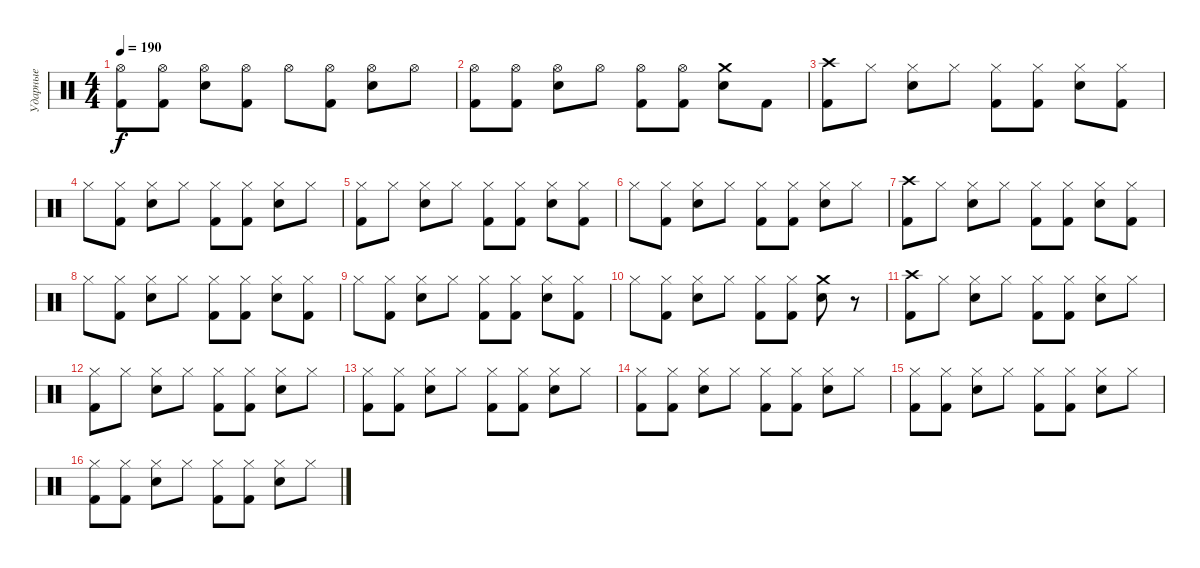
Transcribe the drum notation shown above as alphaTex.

\track ("Ударные" "Ударные") {instrument percussion}
\staff {score}
\articulation defaults
\ts (4 4)
\tempo 190
\clef neutral
\ks c
("Hi-Hat (open)" "Kick (hit) 2").8{dy f} ("Hi-Hat (open)" "Kick (hit) 2").8 ("Hi-Hat (open)" "Electric Snare (hit)").8 ("Hi-Hat (open)" "Kick (hit) 2").8 "Hi-Hat (open)".8 ("Hi-Hat (open)" "Kick (hit) 2").8 ("Hi-Hat (open)" "Electric Snare (hit)").8 "Hi-Hat (open)".8 |
("Hi-Hat (open)" "Kick (hit) 2").8 ("Hi-Hat (open)" "Kick (hit) 2").8 ("Hi-Hat (open)" "Electric Snare (hit)").8 "Hi-Hat (open)".8 ("Hi-Hat (open)" "Kick (hit) 2").8 ("Hi-Hat (open)" "Kick (hit) 2").8 ("Crash medium (hit)" "Electric Snare (hit)").8 "Kick (hit) 2".8 |
("Crash high (hit)" "Kick (hit) 2").8 "Hi-Hat (closed)".8 ("Hi-Hat (closed)" "Electric Snare (hit)").8 "Hi-Hat (closed)".8 ("Hi-Hat (closed)" "Kick (hit) 2").8 ("Hi-Hat (closed)" "Kick (hit) 2").8 ("Hi-Hat (closed)" "Electric Snare (hit)").8 ("Hi-Hat (closed)" "Kick (hit) 2").8 |
"Hi-Hat (closed)".8 ("Hi-Hat (closed)" "Kick (hit) 2").8 ("Hi-Hat (closed)" "Electric Snare (hit)").8 "Hi-Hat (closed)".8 ("Hi-Hat (closed)" "Kick (hit) 2").8 ("Hi-Hat (closed)" "Kick (hit) 2").8 ("Hi-Hat (closed)" "Electric Snare (hit)").8 "Hi-Hat (closed)".8 |
("Hi-Hat (closed)" "Kick (hit) 2").8 "Hi-Hat (closed)".8 ("Hi-Hat (closed)" "Electric Snare (hit)").8 "Hi-Hat (closed)".8 ("Hi-Hat (closed)" "Kick (hit) 2").8 ("Hi-Hat (closed)" "Kick (hit) 2").8 ("Hi-Hat (closed)" "Electric Snare (hit)").8 ("Hi-Hat (closed)" "Kick (hit) 2").8 |
"Hi-Hat (closed)".8 ("Hi-Hat (closed)" "Kick (hit) 2").8 ("Hi-Hat (closed)" "Electric Snare (hit)").8 "Hi-Hat (closed)".8 ("Hi-Hat (closed)" "Kick (hit) 2").8 ("Hi-Hat (closed)" "Kick (hit) 2").8 ("Hi-Hat (closed)" "Electric Snare (hit)").8 "Hi-Hat (closed)".8 |
("Crash high (hit)" "Kick (hit) 2").8 "Hi-Hat (closed)".8 ("Hi-Hat (closed)" "Electric Snare (hit)").8 "Hi-Hat (closed)".8 ("Hi-Hat (closed)" "Kick (hit) 2").8 ("Hi-Hat (closed)" "Kick (hit) 2").8 ("Hi-Hat (closed)" "Electric Snare (hit)").8 ("Hi-Hat (closed)" "Kick (hit) 2").8 |
"Hi-Hat (closed)".8 ("Hi-Hat (closed)" "Kick (hit) 2").8 ("Hi-Hat (closed)" "Electric Snare (hit)").8 "Hi-Hat (closed)".8 ("Hi-Hat (closed)" "Kick (hit) 2").8 ("Hi-Hat (closed)" "Kick (hit) 2").8 ("Hi-Hat (closed)" "Electric Snare (hit)").8 ("Hi-Hat (closed)" "Kick (hit) 2").8 |
"Hi-Hat (closed)".8 ("Hi-Hat (closed)" "Kick (hit) 2").8 ("Hi-Hat (closed)" "Electric Snare (hit)").8 "Hi-Hat (closed)".8 ("Hi-Hat (closed)" "Kick (hit) 2").8 ("Hi-Hat (closed)" "Kick (hit) 2").8 ("Hi-Hat (closed)" "Electric Snare (hit)").8 ("Hi-Hat (closed)" "Kick (hit) 2").8 |
"Hi-Hat (closed)".8 ("Hi-Hat (closed)" "Kick (hit) 2").8 ("Hi-Hat (closed)" "Electric Snare (hit)").8 "Hi-Hat (closed)".8 ("Hi-Hat (closed)" "Kick (hit) 2").8 ("Hi-Hat (closed)" "Kick (hit) 2").8 ("Crash medium (hit)" "Electric Snare (hit)").8 r.8 |
("Crash high (hit)" "Kick (hit) 2").8 "Hi-Hat (closed)".8 ("Hi-Hat (closed)" "Electric Snare (hit)").8 "Hi-Hat (closed)".8 ("Hi-Hat (closed)" "Kick (hit) 2").8 ("Hi-Hat (closed)" "Kick (hit) 2").8 ("Hi-Hat (closed)" "Electric Snare (hit)").8 "Hi-Hat (closed)".8 |
("Hi-Hat (closed)" "Kick (hit) 2").8 "Hi-Hat (closed)".8 ("Hi-Hat (closed)" "Electric Snare (hit)").8 "Hi-Hat (closed)".8 ("Hi-Hat (closed)" "Kick (hit) 2").8 ("Hi-Hat (closed)" "Kick (hit) 2").8 ("Hi-Hat (closed)" "Electric Snare (hit)").8 "Hi-Hat (closed)".8 |
("Hi-Hat (closed)" "Kick (hit) 2").8 ("Hi-Hat (closed)" "Kick (hit) 2").8 ("Hi-Hat (closed)" "Electric Snare (hit)").8 "Hi-Hat (closed)".8 ("Hi-Hat (closed)" "Kick (hit) 2").8 ("Hi-Hat (closed)" "Kick (hit) 2").8 ("Hi-Hat (closed)" "Electric Snare (hit)").8 "Hi-Hat (closed)".8 |
("Hi-Hat (closed)" "Kick (hit) 2").8 ("Hi-Hat (closed)" "Kick (hit) 2").8 ("Hi-Hat (closed)" "Electric Snare (hit)").8 "Hi-Hat (closed)".8 ("Hi-Hat (closed)" "Kick (hit) 2").8 ("Hi-Hat (closed)" "Kick (hit) 2").8 ("Hi-Hat (closed)" "Electric Snare (hit)").8 "Hi-Hat (closed)".8 |
("Hi-Hat (closed)" "Kick (hit) 2").8 ("Hi-Hat (closed)" "Kick (hit) 2").8 ("Hi-Hat (closed)" "Electric Snare (hit)").8 "Hi-Hat (closed)".8 ("Hi-Hat (closed)" "Kick (hit) 2").8 ("Hi-Hat (closed)" "Kick (hit) 2").8 ("Hi-Hat (closed)" "Electric Snare (hit)").8 "Hi-Hat (closed)".8 |
("Hi-Hat (closed)" "Kick (hit) 2").8 ("Hi-Hat (closed)" "Kick (hit) 2").8 ("Hi-Hat (closed)" "Electric Snare (hit)").8 "Hi-Hat (closed)".8 ("Hi-Hat (closed)" "Kick (hit) 2").8 ("Hi-Hat (closed)" "Kick (hit) 2").8 ("Hi-Hat (closed)" "Electric Snare (hit)").8 "Hi-Hat (closed)".8
